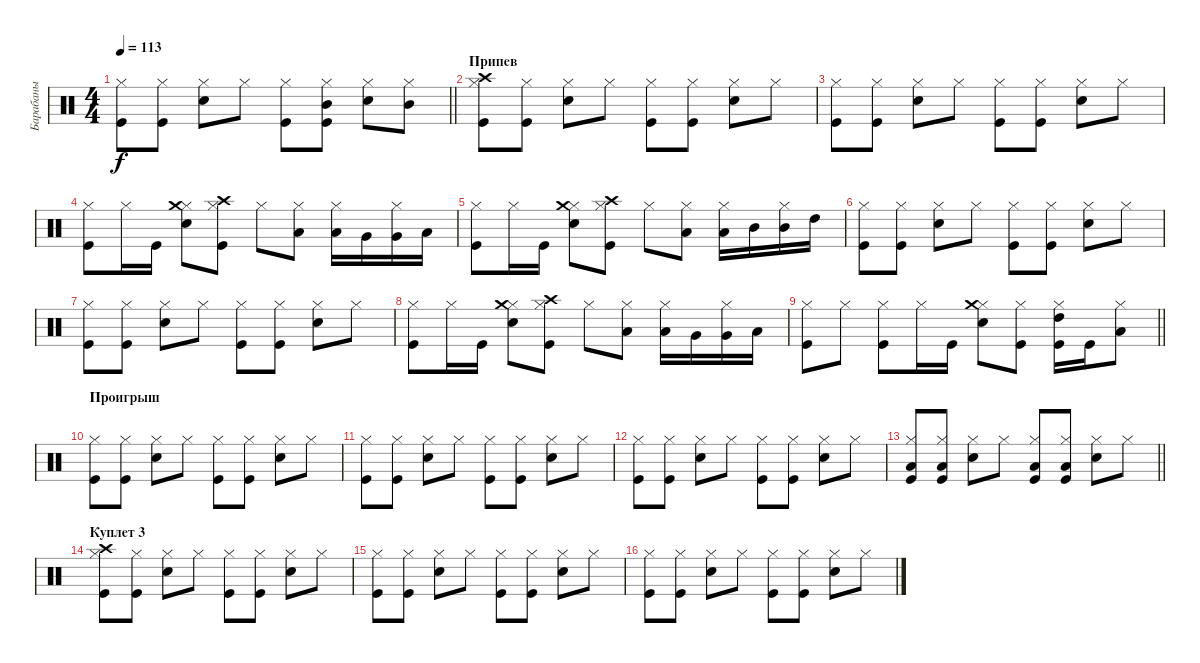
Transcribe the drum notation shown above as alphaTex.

\track ("Барабаны" "Барабаны") {instrument percussion}
\staff {score}
\articulation defaults
\ts (4 4)
\tempo 113
\clef neutral
\barLineRight lightlight
\ks c
("Kick (hit)" "Hi-Hat (closed)").8{dy f} ("Kick (hit)" "Hi-Hat (closed)").8 ("Snare (hit) 2" "Hi-Hat (closed)").8 "Hi-Hat (closed)".8 ("Kick (hit)" "Hi-Hat (closed)").8 ("Kick (hit)" "Hi-Hat (closed)" "Mid Tom (hit)").8 ("Snare (hit) 2" "Hi-Hat (closed)").8 ("Hi-Hat (closed)" "Mid Tom (hit)").8 |
\section ("" "Припев")
("Kick (hit)" "Hi-Hat (closed)" "Crash high (hit)").8 ("Kick (hit)" "Hi-Hat (closed)").8 ("Snare (hit) 2" "Hi-Hat (closed)").8 "Hi-Hat (closed)".8 ("Kick (hit)" "Hi-Hat (closed)").8 ("Kick (hit)" "Hi-Hat (closed)").8 ("Snare (hit) 2" "Hi-Hat (closed)").8 "Hi-Hat (closed)".8 |
("Kick (hit)" "Hi-Hat (closed)").8 ("Kick (hit)" "Hi-Hat (closed)").8 ("Snare (hit) 2" "Hi-Hat (closed)").8 "Hi-Hat (closed)".8 ("Kick (hit)" "Hi-Hat (closed)").8 ("Kick (hit)" "Hi-Hat (closed)").8 ("Snare (hit) 2" "Hi-Hat (closed)").8 "Hi-Hat (closed)".8 |
("Kick (hit)" "Hi-Hat (closed)").8 "Hi-Hat (closed)".16 "Kick (hit)".16 ("Snare (hit) 2" "Hi-Hat (closed)" "Crash medium (hit)").8 ("Kick (hit)" "Hi-Hat (closed)" "Crash high (hit)").8 "Hi-Hat (closed)".8 ("Hi-Hat (closed)" "Low Floor Tom (hit)").8 ("Hi-Hat (closed)" "Low Floor Tom (hit)").16 "Very Low Tom (hit)".16 ("Hi-Hat (closed)" "Very Low Tom (hit)").16 "Low Tom (hit)".16 |
("Kick (hit)" "Hi-Hat (closed)").8 "Hi-Hat (closed)".16 "Kick (hit)".16 ("Snare (hit) 2" "Hi-Hat (closed)" "Crash medium (hit)").8 ("Kick (hit)" "Hi-Hat (closed)" "Crash high (hit)").8 "Hi-Hat (closed)".8 ("Hi-Hat (closed)" "Low Tom (hit)").8 ("Hi-Hat (closed)" "Low Tom (hit)").16 "Mid Tom (hit)".16 ("Hi-Hat (closed)" "Mid Tom (hit)").16 "High Tom (hit)".16 |
("Kick (hit)" "Hi-Hat (closed)").8 ("Kick (hit)" "Hi-Hat (closed)").8 ("Snare (hit) 2" "Hi-Hat (closed)").8 "Hi-Hat (closed)".8 ("Kick (hit)" "Hi-Hat (closed)").8 ("Kick (hit)" "Hi-Hat (closed)").8 ("Snare (hit) 2" "Hi-Hat (closed)").8 "Hi-Hat (closed)".8 |
("Kick (hit)" "Hi-Hat (closed)").8 ("Kick (hit)" "Hi-Hat (closed)").8 ("Snare (hit) 2" "Hi-Hat (closed)").8 "Hi-Hat (closed)".8 ("Kick (hit)" "Hi-Hat (closed)").8 ("Kick (hit)" "Hi-Hat (closed)").8 ("Snare (hit) 2" "Hi-Hat (closed)").8 "Hi-Hat (closed)".8 |
("Kick (hit)" "Hi-Hat (closed)").8 "Hi-Hat (closed)".16 "Kick (hit)".16 ("Snare (hit) 2" "Hi-Hat (closed)" "Crash medium (hit)").8 ("Kick (hit)" "Hi-Hat (closed)" "Crash high (hit)").8 "Hi-Hat (closed)".8 ("Hi-Hat (closed)" "Low Floor Tom (hit)").8 ("Hi-Hat (closed)" "Low Floor Tom (hit)").16 "Very Low Tom (hit)".16 ("Hi-Hat (closed)" "Very Low Tom (hit)").16 "Low Tom (hit)".16 |
\barLineRight lightlight
("Kick (hit)" "Hi-Hat (closed)").8 "Hi-Hat (closed)".8 ("Kick (hit)" "Hi-Hat (closed)").8 "Hi-Hat (closed)".16 "Kick (hit)".16 ("Snare (hit) 2" "Hi-Hat (closed)" "Crash medium (hit)").8 ("Kick (hit)" "Hi-Hat (closed)").8 ("Kick (hit)" "Hi-Hat (closed)" "High Tom (hit)").16 "Kick (hit)".16 ("Hi-Hat (closed)" "Low Floor Tom (hit)").8 |
\section ("" "Проигрыш")
("Kick (hit)" "Hi-Hat (closed)").8 ("Kick (hit)" "Hi-Hat (closed)").8 ("Snare (hit) 2" "Hi-Hat (closed)").8 "Hi-Hat (closed)".8 ("Kick (hit)" "Hi-Hat (closed)").8 ("Kick (hit)" "Hi-Hat (closed)").8 ("Snare (hit) 2" "Hi-Hat (closed)").8 "Hi-Hat (closed)".8 |
("Kick (hit)" "Hi-Hat (closed)").8 ("Kick (hit)" "Hi-Hat (closed)").8 ("Snare (hit) 2" "Hi-Hat (closed)").8 "Hi-Hat (closed)".8 ("Kick (hit)" "Hi-Hat (closed)").8 ("Kick (hit)" "Hi-Hat (closed)").8 ("Snare (hit) 2" "Hi-Hat (closed)").8 "Hi-Hat (closed)".8 |
("Kick (hit)" "Hi-Hat (closed)").8 ("Kick (hit)" "Hi-Hat (closed)").8 ("Snare (hit) 2" "Hi-Hat (closed)").8 "Hi-Hat (closed)".8 ("Kick (hit)" "Hi-Hat (closed)").8 ("Kick (hit)" "Hi-Hat (closed)").8 ("Snare (hit) 2" "Hi-Hat (closed)").8 "Hi-Hat (closed)".8 |
\barLineRight lightlight
("Kick (hit)" "Hi-Hat (closed)" "Low Tom (hit)").8 ("Kick (hit)" "Hi-Hat (closed)" "Low Tom (hit)").8 ("Snare (hit) 2" "Hi-Hat (closed)").8 "Hi-Hat (closed)".8 ("Kick (hit)" "Hi-Hat (closed)" "Low Tom (hit)").8 ("Kick (hit)" "Hi-Hat (closed)" "Low Tom (hit)").8 ("Snare (hit) 2" "Hi-Hat (closed)").8 "Hi-Hat (closed)".8 |
\section ("" "Куплет 3")
("Kick (hit)" "Hi-Hat (closed)" "Crash high (hit)").8 ("Kick (hit)" "Hi-Hat (closed)").8 ("Snare (hit) 2" "Hi-Hat (closed)").8 "Hi-Hat (closed)".8 ("Kick (hit)" "Hi-Hat (closed)").8 ("Kick (hit)" "Hi-Hat (closed)").8 ("Snare (hit) 2" "Hi-Hat (closed)").8 "Hi-Hat (closed)".8 |
("Kick (hit)" "Hi-Hat (closed)").8 ("Kick (hit)" "Hi-Hat (closed)").8 ("Snare (hit) 2" "Hi-Hat (closed)").8 "Hi-Hat (closed)".8 ("Kick (hit)" "Hi-Hat (closed)").8 ("Kick (hit)" "Hi-Hat (closed)").8 ("Snare (hit) 2" "Hi-Hat (closed)").8 "Hi-Hat (closed)".8 |
("Kick (hit)" "Hi-Hat (closed)").8 ("Kick (hit)" "Hi-Hat (closed)").8 ("Snare (hit) 2" "Hi-Hat (closed)").8 "Hi-Hat (closed)".8 ("Kick (hit)" "Hi-Hat (closed)").8 ("Kick (hit)" "Hi-Hat (closed)").8 ("Snare (hit) 2" "Hi-Hat (closed)").8 "Hi-Hat (closed)".8
